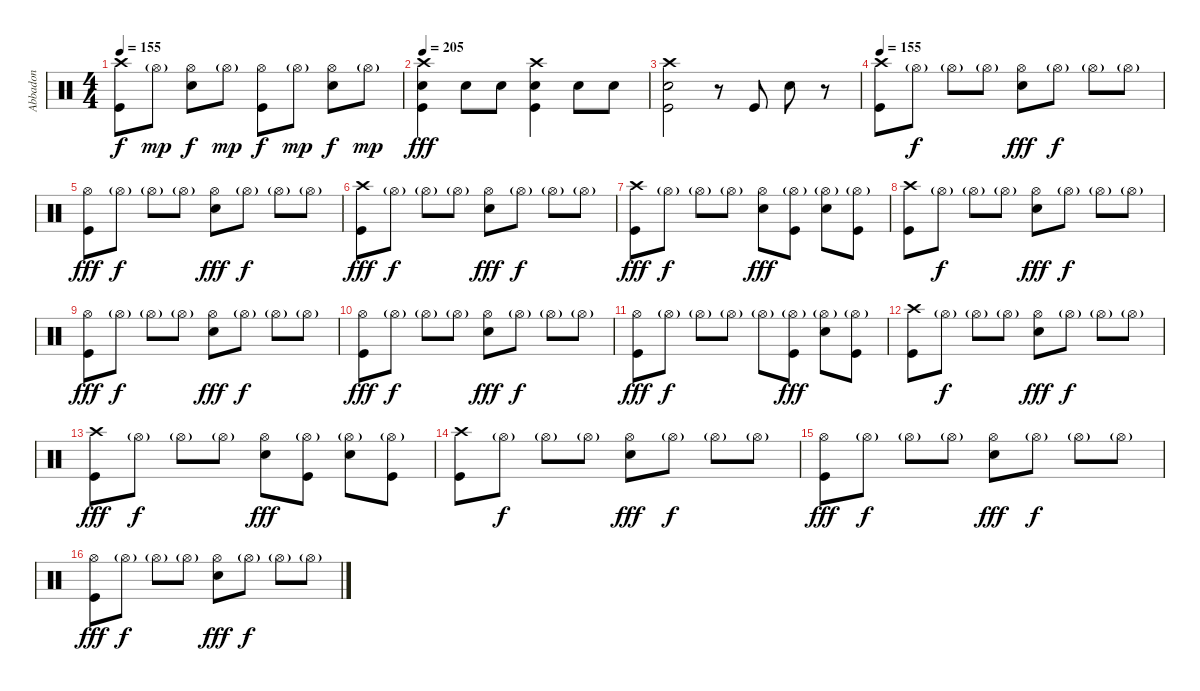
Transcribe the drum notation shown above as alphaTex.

\track ("Abbadon" "Abbadon") {instrument percussion}
\staff {score}
\articulation defaults
\ts (4 4)
\tempo 155
\clef neutral
\ks c
("Crash high (hit)" "Kick (hit)").8{dy f} "Hi-Hat (open)"{g}.8{dy mp} ("Hi-Hat (open)" "Electric Snare (hit)").8{dy f} "Hi-Hat (open)"{g}.8{dy mp} ("Hi-Hat (open)" "Kick (hit)").8{dy f} "Hi-Hat (open)"{g}.8{dy mp} ("Hi-Hat (open)" "Electric Snare (hit)").8{dy f} "Hi-Hat (open)"{g}.8{dy mp} |
\tempo 205
("Crash high (hit)" "Electric Snare (hit)" "Kick (hit)").4{dy fff} "Electric Snare (hit)".8 "Electric Snare (hit)".8 ("Crash high (hit)" "Electric Snare (hit)" "Kick (hit)").4 "Electric Snare (hit)".8 "Electric Snare (hit)".8 |
("Crash high (hit)" "Electric Snare (hit)" "Kick (hit)").2 r.8 "Kick (hit)".8 "Electric Snare (hit)".8 r.8 |
\tempo 155
("Crash high (hit)" "Kick (hit)").8 "Hi-Hat (open)"{g}.8{dy f} "Hi-Hat (open)"{g}.8 "Hi-Hat (open)"{g}.8 ("Hi-Hat (open)" "Electric Snare (hit)").8{dy fff} "Hi-Hat (open)"{g}.8{dy f} "Hi-Hat (open)"{g}.8 "Hi-Hat (open)"{g}.8 |
("Hi-Hat (open)" "Kick (hit)").8{dy fff} "Hi-Hat (open)"{g}.8{dy f} "Hi-Hat (open)"{g}.8 "Hi-Hat (open)"{g}.8 ("Hi-Hat (open)" "Electric Snare (hit)").8{dy fff} "Hi-Hat (open)"{g}.8{dy f} "Hi-Hat (open)"{g}.8 "Hi-Hat (open)"{g}.8 |
("Crash high (hit)" "Kick (hit)").8{dy fff} "Hi-Hat (open)"{g}.8{dy f} "Hi-Hat (open)"{g}.8 "Hi-Hat (open)"{g}.8 ("Hi-Hat (open)" "Electric Snare (hit)").8{dy fff} "Hi-Hat (open)"{g}.8{dy f} "Hi-Hat (open)"{g}.8 "Hi-Hat (open)"{g}.8 |
("Crash high (hit)" "Kick (hit)").8{dy fff} "Hi-Hat (open)"{g}.8{dy f} "Hi-Hat (open)"{g}.8 "Hi-Hat (open)"{g}.8 ("Hi-Hat (open)" "Electric Snare (hit)").8{dy fff} ("Hi-Hat (open)"{g} "Kick (hit)").8 ("Hi-Hat (open)"{g} "Electric Snare (hit)").8 ("Hi-Hat (open)"{g} "Kick (hit)").8 |
("Crash high (hit)" "Kick (hit)").8 "Hi-Hat (open)"{g}.8{dy f} "Hi-Hat (open)"{g}.8 "Hi-Hat (open)"{g}.8 ("Hi-Hat (open)" "Electric Snare (hit)").8{dy fff} "Hi-Hat (open)"{g}.8{dy f} "Hi-Hat (open)"{g}.8 "Hi-Hat (open)"{g}.8 |
("Hi-Hat (open)" "Kick (hit)").8{dy fff} "Hi-Hat (open)"{g}.8{dy f} "Hi-Hat (open)"{g}.8 "Hi-Hat (open)"{g}.8 ("Hi-Hat (open)" "Electric Snare (hit)").8{dy fff} "Hi-Hat (open)"{g}.8{dy f} "Hi-Hat (open)"{g}.8 "Hi-Hat (open)"{g}.8 |
("Hi-Hat (open)" "Kick (hit)").8{dy fff} "Hi-Hat (open)"{g}.8{dy f} "Hi-Hat (open)"{g}.8 "Hi-Hat (open)"{g}.8 ("Hi-Hat (open)" "Electric Snare (hit)").8{dy fff} "Hi-Hat (open)"{g}.8{dy f} "Hi-Hat (open)"{g}.8 "Hi-Hat (open)"{g}.8 |
("Hi-Hat (open)" "Kick (hit)").8{dy fff} "Hi-Hat (open)"{g}.8{dy f} "Hi-Hat (open)"{g}.8 "Hi-Hat (open)"{g}.8 "Hi-Hat (open)"{g}.8 ("Hi-Hat (open)"{g} "Kick (hit)").8{dy fff} ("Hi-Hat (open)"{g} "Electric Snare (hit)").8 ("Hi-Hat (open)"{g} "Kick (hit)").8 |
("Crash high (hit)" "Kick (hit)").8 "Hi-Hat (open)"{g}.8{dy f} "Hi-Hat (open)"{g}.8 "Hi-Hat (open)"{g}.8 ("Hi-Hat (open)" "Electric Snare (hit)").8{dy fff} "Hi-Hat (open)"{g}.8{dy f} "Hi-Hat (open)"{g}.8 "Hi-Hat (open)"{g}.8 |
("Crash high (hit)" "Kick (hit)").8{dy fff} "Hi-Hat (open)"{g}.8{dy f} "Hi-Hat (open)"{g}.8 "Hi-Hat (open)"{g}.8 ("Hi-Hat (open)" "Electric Snare (hit)").8{dy fff} ("Hi-Hat (open)"{g} "Kick (hit)").8 ("Hi-Hat (open)"{g} "Electric Snare (hit)").8 ("Hi-Hat (open)"{g} "Kick (hit)").8 |
("Crash high (hit)" "Kick (hit)").8 "Hi-Hat (open)"{g}.8{dy f} "Hi-Hat (open)"{g}.8 "Hi-Hat (open)"{g}.8 ("Hi-Hat (open)" "Electric Snare (hit)").8{dy fff} "Hi-Hat (open)"{g}.8{dy f} "Hi-Hat (open)"{g}.8 "Hi-Hat (open)"{g}.8 |
("Hi-Hat (open)" "Kick (hit)").8{dy fff} "Hi-Hat (open)"{g}.8{dy f} "Hi-Hat (open)"{g}.8 "Hi-Hat (open)"{g}.8 ("Hi-Hat (open)" "Electric Snare (hit)").8{dy fff} "Hi-Hat (open)"{g}.8{dy f} "Hi-Hat (open)"{g}.8 "Hi-Hat (open)"{g}.8 |
("Hi-Hat (open)" "Kick (hit)").8{dy fff} "Hi-Hat (open)"{g}.8{dy f} "Hi-Hat (open)"{g}.8 "Hi-Hat (open)"{g}.8 ("Hi-Hat (open)" "Electric Snare (hit)").8{dy fff} "Hi-Hat (open)"{g}.8{dy f} "Hi-Hat (open)"{g}.8 "Hi-Hat (open)"{g}.8
